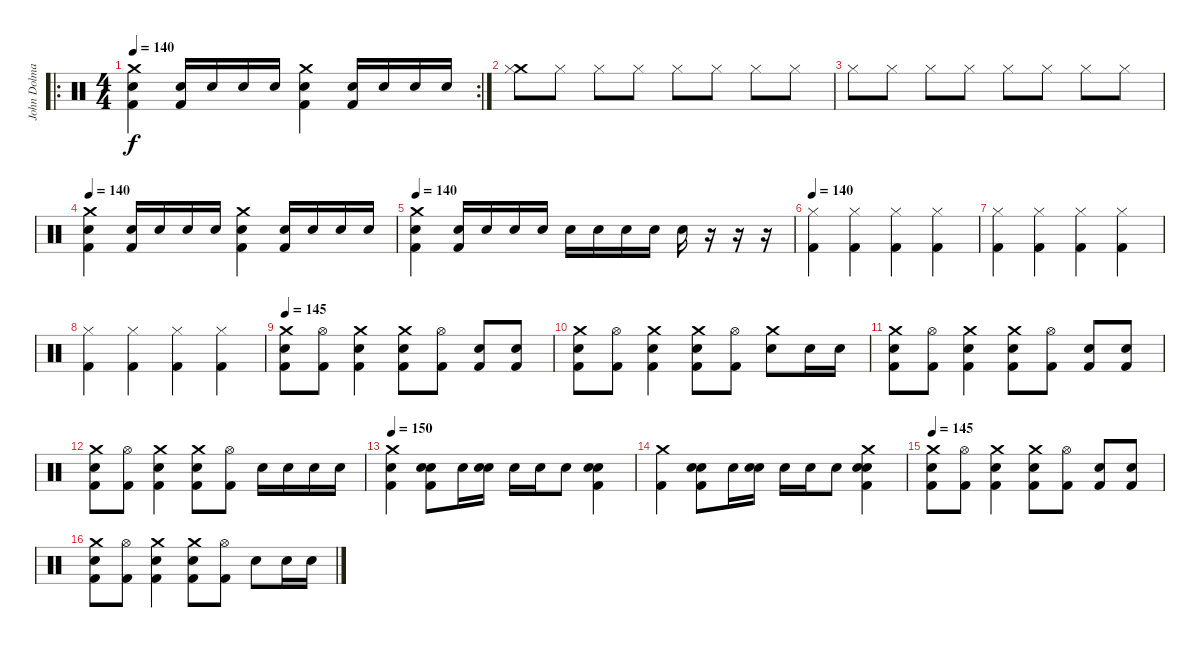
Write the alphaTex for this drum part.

\track ("John Dolmayan" "John Dolma") {instrument percussion}
\staff {score}
\articulation defaults
\ro
\rc 2
\ts (4 4)
\tempo 140
\clef neutral
\ks c
("Crash medium (hit)" "Electric Snare (hit)" "Kick (hit) 2").4{dy f} ("Electric Snare (hit)" "Kick (hit) 2").16 "Electric Snare (hit)".16 "Electric Snare (hit)".16 "Electric Snare (hit)".16 ("Crash medium (hit)" "Electric Snare (hit)" "Kick (hit) 2").4 ("Electric Snare (hit)" "Kick (hit) 2").16 "Electric Snare (hit)".16 "Electric Snare (hit)".16 "Electric Snare (hit)".16 |
("Crash medium (hit)" "Hi-Hat (closed)").8 "Hi-Hat (closed)".8 "Hi-Hat (closed)".8 "Hi-Hat (closed)".8 "Hi-Hat (closed)".8 "Hi-Hat (closed)".8 "Hi-Hat (closed)".8 "Hi-Hat (closed)".8 |
"Hi-Hat (closed)".8 "Hi-Hat (closed)".8 "Hi-Hat (closed)".8 "Hi-Hat (closed)".8 "Hi-Hat (closed)".8 "Hi-Hat (closed)".8 "Hi-Hat (closed)".8 "Hi-Hat (closed)".8 |
\tempo 140
("Crash medium (hit)" "Electric Snare (hit)" "Kick (hit) 2").4 ("Electric Snare (hit)" "Kick (hit) 2").16 "Electric Snare (hit)".16 "Electric Snare (hit)".16 "Electric Snare (hit)".16 ("Crash medium (hit)" "Electric Snare (hit)" "Kick (hit) 2").4 ("Electric Snare (hit)" "Kick (hit) 2").16 "Electric Snare (hit)".16 "Electric Snare (hit)".16 "Electric Snare (hit)".16 |
\tempo 140
("Crash medium (hit)" "Electric Snare (hit)" "Kick (hit) 2").4 ("Electric Snare (hit)" "Kick (hit) 2").16 "Electric Snare (hit)".16 "Electric Snare (hit)".16 "Electric Snare (hit)".16 "Electric Snare (hit)".16 "Electric Snare (hit)".16 "Electric Snare (hit)".16 "Electric Snare (hit)".16 "Electric Snare (hit)".16 r.16 r.16 r.16 |
\tempo 140
("Hi-Hat (closed)" "Kick (hit) 2").4 ("Hi-Hat (closed)" "Kick (hit) 2").4 ("Hi-Hat (closed)" "Kick (hit) 2").4 ("Hi-Hat (closed)" "Kick (hit) 2").4 |
("Hi-Hat (closed)" "Kick (hit) 2").4 ("Hi-Hat (closed)" "Kick (hit) 2").4 ("Hi-Hat (closed)" "Kick (hit) 2").4 ("Hi-Hat (closed)" "Kick (hit) 2").4 |
("Hi-Hat (closed)" "Kick (hit) 2").4 ("Hi-Hat (closed)" "Kick (hit) 2").4 ("Hi-Hat (closed)" "Kick (hit) 2").4 ("Hi-Hat (closed)" "Kick (hit) 2").4 |
\tempo 145
("Crash medium (hit)" "Electric Snare (hit)" "Kick (hit) 2").8 ("Hi-Hat (open)" "Kick (hit) 2").8 ("Crash medium (hit)" "Electric Snare (hit)" "Kick (hit) 2").4 ("Crash medium (hit)" "Electric Snare (hit)" "Kick (hit) 2").8 ("Hi-Hat (open)" "Kick (hit) 2").8 ("Snare (hit) 2" "Kick (hit) 2").8 ("Electric Snare (hit)" "Kick (hit) 2").8 |
("Crash medium (hit)" "Electric Snare (hit)" "Kick (hit) 2").8 ("Hi-Hat (open)" "Kick (hit) 2").8 ("Crash medium (hit)" "Electric Snare (hit)" "Kick (hit) 2").4 ("Crash medium (hit)" "Electric Snare (hit)" "Kick (hit) 2").8 ("Hi-Hat (open)" "Kick (hit) 2").8 ("Crash medium (hit)" "Electric Snare (hit)").8 "Electric Snare (hit)".16 "Electric Snare (hit)".16 |
("Crash medium (hit)" "Electric Snare (hit)" "Kick (hit) 2").8 ("Hi-Hat (open)" "Kick (hit) 2").8 ("Crash medium (hit)" "Electric Snare (hit)" "Kick (hit) 2").4 ("Crash medium (hit)" "Electric Snare (hit)" "Kick (hit) 2").8 ("Hi-Hat (open)" "Kick (hit) 2").8 ("Snare (hit) 2" "Kick (hit) 2").8 ("Electric Snare (hit)" "Kick (hit) 2").8 |
("Crash medium (hit)" "Electric Snare (hit)" "Kick (hit) 2").8 ("Hi-Hat (open)" "Kick (hit) 2").8 ("Crash medium (hit)" "Electric Snare (hit)" "Kick (hit) 2").4 ("Crash medium (hit)" "Electric Snare (hit)" "Kick (hit) 2").8 ("Hi-Hat (open)" "Kick (hit) 2").8 "Electric Snare (hit)".16 "Electric Snare (hit)".16 "Electric Snare (hit)".16 "Electric Snare (hit)".16 |
\tempo 150
("Crash medium (hit)" "Electric Snare (hit)" "Kick (hit) 2").4 ("Snare (hit) 2" "Electric Snare (hit)" "Kick (hit) 2").8 "Electric Snare (hit)".16 ("Snare (hit) 2" "Electric Snare (hit)").16 "Electric Snare (hit)".16 "Electric Snare (hit)".16 "Electric Snare (hit)".8 ("Snare (hit) 2" "Electric Snare (hit)" "Kick (hit) 2").4 |
("Crash medium (hit)" "Kick (hit) 2").4 ("Snare (hit) 2" "Electric Snare (hit)" "Kick (hit) 2").8 "Electric Snare (hit)".16 ("Snare (hit) 2" "Electric Snare (hit)").16 "Electric Snare (hit)".16 "Electric Snare (hit)".16 "Electric Snare (hit)".8 ("Crash medium (hit)" "Snare (hit) 2" "Electric Snare (hit)" "Kick (hit) 2").4 |
\tempo 145
("Crash medium (hit)" "Electric Snare (hit)" "Kick (hit) 2").8 ("Hi-Hat (open)" "Kick (hit) 2").8 ("Crash medium (hit)" "Electric Snare (hit)" "Kick (hit) 2").4 ("Crash medium (hit)" "Electric Snare (hit)" "Kick (hit) 2").8 ("Hi-Hat (open)" "Kick (hit) 2").8 ("Snare (hit) 2" "Kick (hit) 2").8 ("Electric Snare (hit)" "Kick (hit) 2").8 |
("Crash medium (hit)" "Electric Snare (hit)" "Kick (hit) 2").8 ("Hi-Hat (open)" "Kick (hit) 2").8 ("Crash medium (hit)" "Electric Snare (hit)" "Kick (hit) 2").4 ("Crash medium (hit)" "Electric Snare (hit)" "Kick (hit) 2").8 ("Hi-Hat (open)" "Kick (hit) 2").8 "Electric Snare (hit)".8 "Electric Snare (hit)".16 "Electric Snare (hit)".16
